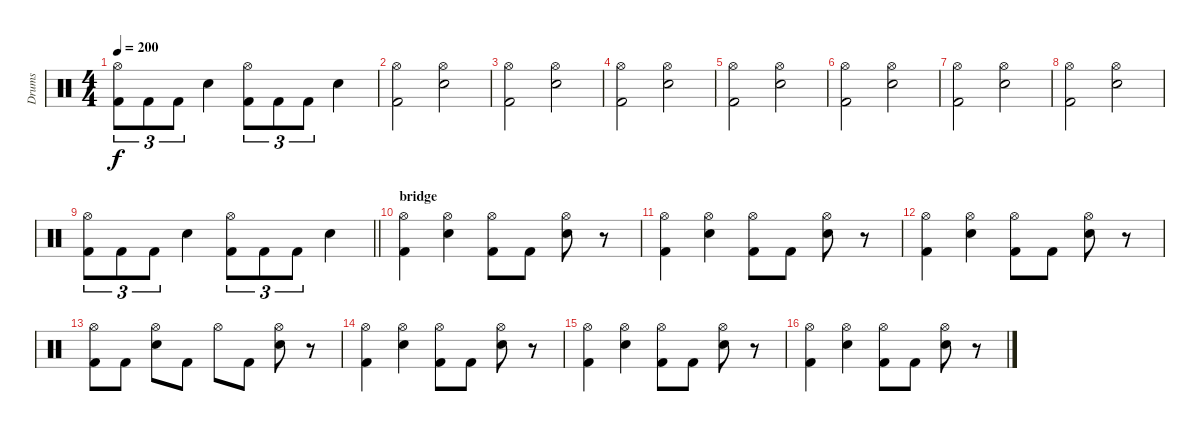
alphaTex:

\track ("Drums" "Drums") {instrument percussion}
\staff {score}
\articulation defaults
\ts (4 4)
\tempo 200
\clef neutral
\ks c
("Hi-Hat (open)" "Kick (hit) 2").8{tu (3 2) dy f} "Kick (hit) 2".8{tu (3 2)} "Kick (hit) 2".8{tu (3 2)} "Electric Snare (hit)".4 ("Hi-Hat (open)" "Kick (hit) 2").8{tu (3 2)} "Kick (hit) 2".8{tu (3 2)} "Kick (hit) 2".8{tu (3 2)} "Electric Snare (hit)".4 |
("Hi-Hat (open)" "Kick (hit) 2").2 ("Hi-Hat (open)" "Electric Snare (hit)").2 |
("Hi-Hat (open)" "Kick (hit) 2").2 ("Hi-Hat (open)" "Electric Snare (hit)").2 |
("Hi-Hat (open)" "Kick (hit) 2").2 ("Hi-Hat (open)" "Electric Snare (hit)").2 |
("Hi-Hat (open)" "Kick (hit) 2").2 ("Hi-Hat (open)" "Electric Snare (hit)").2 |
("Hi-Hat (open)" "Kick (hit) 2").2 ("Hi-Hat (open)" "Electric Snare (hit)").2 |
("Hi-Hat (open)" "Kick (hit) 2").2 ("Hi-Hat (open)" "Electric Snare (hit)").2 |
("Hi-Hat (open)" "Kick (hit) 2").2 ("Hi-Hat (open)" "Electric Snare (hit)").2 |
\barLineRight lightlight
("Hi-Hat (open)" "Kick (hit) 2").8{tu (3 2)} "Kick (hit) 2".8{tu (3 2)} "Kick (hit) 2".8{tu (3 2)} "Electric Snare (hit)".4 ("Hi-Hat (open)" "Kick (hit) 2").8{tu (3 2)} "Kick (hit) 2".8{tu (3 2)} "Kick (hit) 2".8{tu (3 2)} "Electric Snare (hit)".4 |
\section ("" "bridge")
("Hi-Hat (open)" "Kick (hit) 2").4 ("Hi-Hat (open)" "Electric Snare (hit)").4 ("Hi-Hat (open)" "Kick (hit) 2").8 "Kick (hit) 2".8 ("Hi-Hat (open)" "Electric Snare (hit)").8 r.8 |
("Hi-Hat (open)" "Kick (hit) 2").4 ("Hi-Hat (open)" "Electric Snare (hit)").4 ("Hi-Hat (open)" "Kick (hit) 2").8 "Kick (hit) 2".8 ("Hi-Hat (open)" "Electric Snare (hit)").8 r.8 |
("Hi-Hat (open)" "Kick (hit) 2").4 ("Hi-Hat (open)" "Electric Snare (hit)").4 ("Hi-Hat (open)" "Kick (hit) 2").8 "Kick (hit) 2".8 ("Hi-Hat (open)" "Electric Snare (hit)").8 r.8 |
("Hi-Hat (open)" "Kick (hit) 2").8 "Kick (hit) 2".8 ("Hi-Hat (open)" "Electric Snare (hit)").8 "Kick (hit) 2".8 "Hi-Hat (open)".8 "Kick (hit) 2".8 ("Hi-Hat (open)" "Electric Snare (hit)").8 r.8 |
("Hi-Hat (open)" "Kick (hit) 2").4 ("Hi-Hat (open)" "Electric Snare (hit)").4 ("Hi-Hat (open)" "Kick (hit) 2").8 "Kick (hit) 2".8 ("Hi-Hat (open)" "Electric Snare (hit)").8 r.8 |
("Hi-Hat (open)" "Kick (hit) 2").4 ("Hi-Hat (open)" "Electric Snare (hit)").4 ("Hi-Hat (open)" "Kick (hit) 2").8 "Kick (hit) 2".8 ("Hi-Hat (open)" "Electric Snare (hit)").8 r.8 |
("Hi-Hat (open)" "Kick (hit) 2").4 ("Hi-Hat (open)" "Electric Snare (hit)").4 ("Hi-Hat (open)" "Kick (hit) 2").8 "Kick (hit) 2".8 ("Hi-Hat (open)" "Electric Snare (hit)").8 r.8
